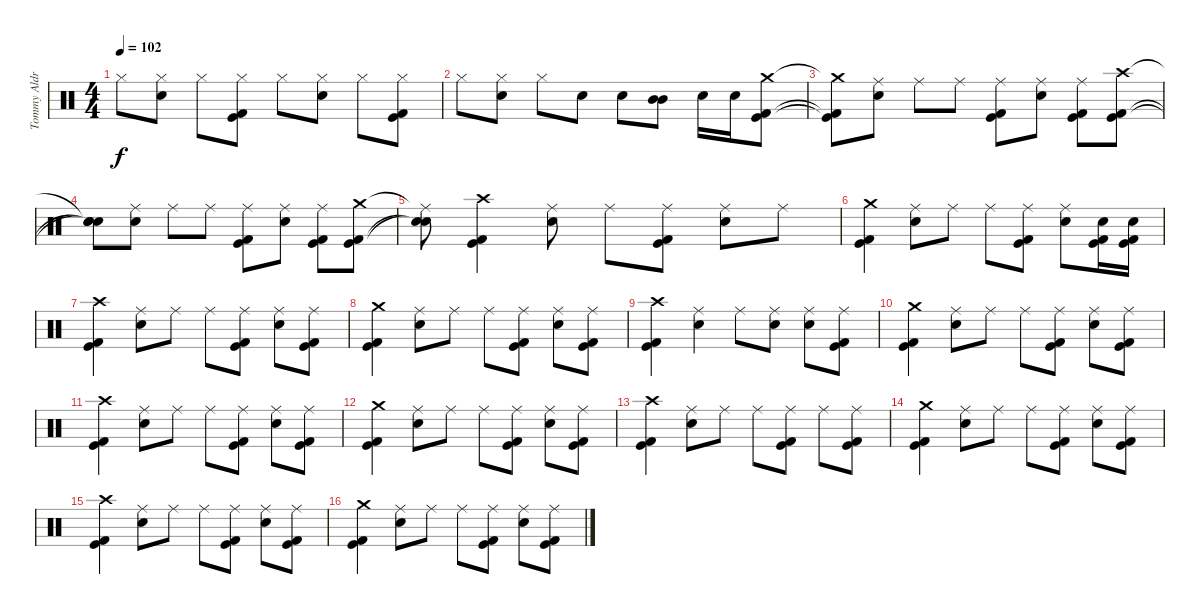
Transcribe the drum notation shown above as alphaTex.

\track ("Tommy Aldridge" "Tommy Aldr") {instrument percussion}
\staff {score}
\articulation defaults
\ts (4 4)
\tempo 102
\clef neutral
\ks c "Hi-Hat (closed)".8{dy f}
("Hi-Hat (closed)" "Electric Snare (hit)").8 "Hi-Hat (closed)".8 ("Hi-Hat (closed)" "Kick (hit)" "Kick (hit) 2").8 "Hi-Hat (closed)".8 ("Hi-Hat (closed)" "Electric Snare (hit)").8 "Hi-Hat (closed)".8 ("Hi-Hat (closed)" "Kick (hit)" "Kick (hit) 2").8 |
"Hi-Hat (closed)".8 ("Hi-Hat (closed)" "Electric Snare (hit)").8 "Hi-Hat (closed)".8 "Electric Snare (hit)".8 "Electric Snare (hit)".8 ("Mid Tom (hit)" "Mid Tom (hit)").8 "Electric Snare (hit)".16 "Electric Snare (hit)".16 ("Crash medium (hit)" "Kick (hit)" "Kick (hit) 2").8 |
("Crash medium (hit)"{t} "Kick (hit)"{t} "Kick (hit) 2"{t}).8 ("Ride (middle)" "Electric Snare (hit)").8 "Ride (middle)".8 "Ride (middle)".8 ("Ride (middle)" "Kick (hit)" "Kick (hit) 2").8 ("Ride (middle)" "Electric Snare (hit)").8 ("Ride (middle)" "Kick (hit)" "Kick (hit) 2").8 ("Crash high (hit)" "Kick (hit)" "Kick (hit) 2").8 |
("Snare (hit)"{t} "Snare (hit)"{t} "Snare (hit)"{t}).8 ("Ride (middle)" "Electric Snare (hit)").8 "Ride (middle)".8 "Ride (middle)".8 ("Ride (middle)" "Kick (hit)" "Kick (hit) 2").8 ("Ride (middle)" "Electric Snare (hit)").8 ("Ride (middle)" "Kick (hit)" "Kick (hit) 2").8 ("Crash medium (hit)" "Kick (hit)" "Kick (hit) 2").8 |
("Ride (middle)"{t} "Snare (hit)"{t} "Snare (hit)"{t}).8 ("Crash high (hit)" "Kick (hit)" "Kick (hit) 2").4 ("Ride (middle)" "Electric Snare (hit)").8 "Ride (middle)".8 ("Ride (middle)" "Kick (hit)" "Kick (hit) 2").8 ("Ride (middle)" "Electric Snare (hit)").8 "Ride (middle)".8 |
("Crash medium (hit)" "Kick (hit)" "Kick (hit) 2").4 ("Ride (middle)" "Electric Snare (hit)").8 "Ride (middle)".8 "Ride (middle)".8 ("Ride (middle)" "Kick (hit)" "Kick (hit) 2").8 ("Ride (middle)" "Electric Snare (hit)").8 ("Electric Snare (hit)" "Kick (hit)" "Kick (hit) 2").16 ("Electric Snare (hit)" "Kick (hit)" "Kick (hit) 2").16 |
("Crash high (hit)" "Kick (hit)" "Kick (hit) 2").4 ("Ride (middle)" "Electric Snare (hit)").8 "Ride (middle)".8 "Ride (middle)".8 ("Ride (middle)" "Kick (hit)" "Kick (hit) 2").8 ("Ride (middle)" "Electric Snare (hit)").8 ("Ride (middle)" "Kick (hit)" "Kick (hit) 2").8 |
("Crash medium (hit)" "Kick (hit)" "Kick (hit) 2").4 ("Ride (middle)" "Electric Snare (hit)").8 "Ride (middle)".8 "Ride (middle)".8 ("Ride (middle)" "Kick (hit)" "Kick (hit) 2").8 ("Ride (middle)" "Electric Snare (hit)").8 ("Ride (middle)" "Kick (hit)" "Kick (hit) 2").8 |
("Crash high (hit)" "Kick (hit)" "Kick (hit) 2").4 ("Ride (middle)" "Electric Snare (hit)").4 "Ride (middle)".8 ("Ride (middle)" "Electric Snare (hit)").8 ("Ride (middle)" "Electric Snare (hit)").8 ("Ride (middle)" "Kick (hit)" "Kick (hit) 2").8 |
("Crash medium (hit)" "Kick (hit)" "Kick (hit) 2").4 ("Ride (middle)" "Electric Snare (hit)").8 "Ride (middle)".8 "Ride (middle)".8 ("Ride (middle)" "Kick (hit)" "Kick (hit) 2").8 ("Ride (middle)" "Electric Snare (hit)").8 ("Ride (middle)" "Kick (hit)" "Kick (hit) 2").8 |
("Crash high (hit)" "Kick (hit)" "Kick (hit) 2").4 ("Ride (middle)" "Electric Snare (hit)").8 "Ride (middle)".8 "Ride (middle)".8 ("Ride (middle)" "Kick (hit)" "Kick (hit) 2").8 ("Ride (middle)" "Electric Snare (hit)").8 ("Ride (middle)" "Kick (hit)" "Kick (hit) 2").8 |
("Crash medium (hit)" "Kick (hit)" "Kick (hit) 2").4 ("Ride (middle)" "Electric Snare (hit)").8 "Ride (middle)".8 "Ride (middle)".8 ("Ride (middle)" "Kick (hit)" "Kick (hit) 2").8 ("Ride (middle)" "Electric Snare (hit)").8 ("Ride (middle)" "Kick (hit)" "Kick (hit) 2").8 |
("Crash high (hit)" "Kick (hit)" "Kick (hit) 2").4 ("Ride (middle)" "Electric Snare (hit)").8 "Ride (middle)".8 "Ride (middle)".8 ("Ride (middle)" "Kick (hit)" "Kick (hit) 2").8 "Ride (middle)".8 ("Ride (middle)" "Kick (hit)" "Kick (hit) 2").8 |
("Crash medium (hit)" "Kick (hit)" "Kick (hit) 2").4 ("Ride (middle)" "Electric Snare (hit)").8 "Ride (middle)".8 "Ride (middle)".8 ("Ride (middle)" "Kick (hit)" "Kick (hit) 2").8 ("Ride (middle)" "Electric Snare (hit)").8 ("Ride (middle)" "Kick (hit)" "Kick (hit) 2").8 |
("Crash high (hit)" "Kick (hit)" "Kick (hit) 2").4 ("Ride (middle)" "Electric Snare (hit)").8 "Ride (middle)".8 "Ride (middle)".8 ("Ride (middle)" "Kick (hit)" "Kick (hit) 2").8 ("Ride (middle)" "Electric Snare (hit)").8 ("Ride (middle)" "Kick (hit)" "Kick (hit) 2").8 |
("Crash medium (hit)" "Kick (hit)" "Kick (hit) 2").4 ("Ride (middle)" "Electric Snare (hit)").8 "Ride (middle)".8 "Ride (middle)".8 ("Ride (middle)" "Kick (hit)" "Kick (hit) 2").8 ("Ride (middle)" "Electric Snare (hit)").8 ("Ride (middle)" "Kick (hit)" "Kick (hit) 2").8
